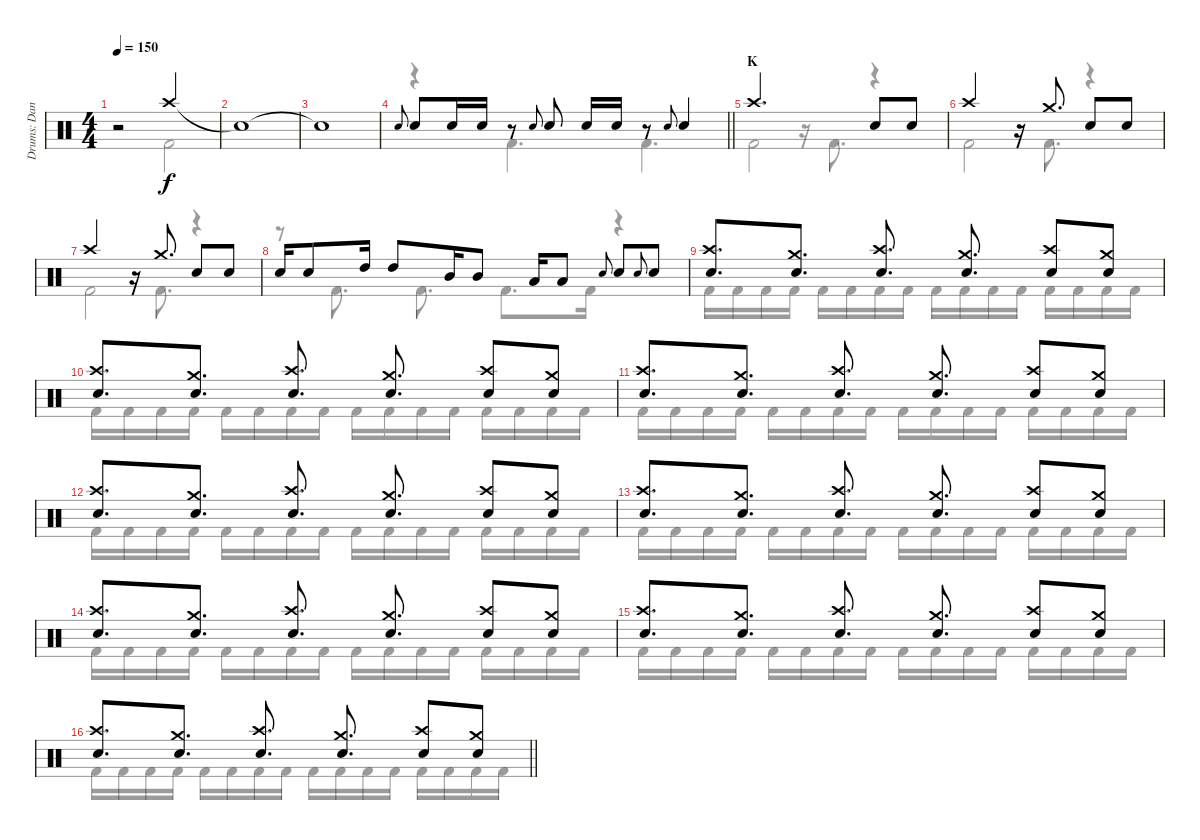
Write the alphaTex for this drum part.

\track ("Drums: Dana" "Drums: Dan") {instrument percussion}
\staff {score}
\articulation defaults
\voice
\ts (4 4)
\tempo 150
\clef neutral
\ks c
r.2{dy f} "Crash high (hit)".2 |
"Snare (hit)"{t}.1 |
"Snare (hit)"{t}.1 |
\barLineRight lightlight "Electric Snare (hit)".8{gr onbeat} "Snare (hit) 2".8 "Electric Snare (hit)".16 "Electric Snare (hit)".16
r.8 "Electric Snare (hit)".8{gr onbeat} "Snare (hit) 2".8 "Electric Snare (hit)".16 "Electric Snare (hit)".16 r.8 "Electric Snare (hit)".8{gr onbeat} "Snare (hit) 2".4 |
\section ("" "K")
"Crash high (hit)".2{d} "Snare (hit) 2".8 "Snare (hit) 2".8 |
"Crash high (hit)".2 r.16 "Crash medium (hit)".8{d} "Snare (hit) 2".8 "Snare (hit) 2".8 |
"Crash high (hit)".2 r.16 "Crash medium (hit)".8{d} "Snare (hit) 2".8 "Snare (hit) 2".8 |
"Snare (hit) 2".16 "Snare (hit) 2".8 "High Tom (hit)".16 "High Tom (hit)".8 "Mid Tom (hit)".16 "Mid Tom (hit)".8 "Low Tom (hit)".16 "Low Tom (hit)".8 "Electric Snare (hit)".8{gr onbeat} "Snare (hit) 2".8 "Electric Snare (hit)".8{gr onbeat} "Snare (hit) 2".8 |
("Crash high (hit)" "Snare (hit) 2").8{d} ("Crash medium (hit)" "Snare (hit) 2").8{d} ("Crash high (hit)" "Snare (hit) 2").8{d} ("Crash medium (hit)" "Snare (hit) 2").8{d} ("Crash high (hit)" "Snare (hit) 2").8 ("Crash medium (hit)" "Snare (hit) 2").8 |
("Crash high (hit)" "Snare (hit) 2").8{d} ("Crash medium (hit)" "Snare (hit) 2").8{d} ("Crash high (hit)" "Snare (hit) 2").8{d} ("Crash medium (hit)" "Snare (hit) 2").8{d} ("Crash high (hit)" "Snare (hit) 2").8 ("Crash medium (hit)" "Snare (hit) 2").8 |
("Crash high (hit)" "Snare (hit) 2").8{d} ("Crash medium (hit)" "Snare (hit) 2").8{d} ("Crash high (hit)" "Snare (hit) 2").8{d} ("Crash medium (hit)" "Snare (hit) 2").8{d} ("Crash high (hit)" "Snare (hit) 2").8 ("Crash medium (hit)" "Snare (hit) 2").8 |
("Crash high (hit)" "Snare (hit) 2").8{d} ("Crash medium (hit)" "Snare (hit) 2").8{d} ("Crash high (hit)" "Snare (hit) 2").8{d} ("Crash medium (hit)" "Snare (hit) 2").8{d} ("Crash high (hit)" "Snare (hit) 2").8 ("Crash medium (hit)" "Snare (hit) 2").8 |
("Crash high (hit)" "Snare (hit) 2").8{d} ("Crash medium (hit)" "Snare (hit) 2").8{d} ("Crash high (hit)" "Snare (hit) 2").8{d} ("Crash medium (hit)" "Snare (hit) 2").8{d} ("Crash high (hit)" "Snare (hit) 2").8 ("Crash medium (hit)" "Snare (hit) 2").8 |
("Crash high (hit)" "Snare (hit) 2").8{d} ("Crash medium (hit)" "Snare (hit) 2").8{d} ("Crash high (hit)" "Snare (hit) 2").8{d} ("Crash medium (hit)" "Snare (hit) 2").8{d} ("Crash high (hit)" "Snare (hit) 2").8 ("Crash medium (hit)" "Snare (hit) 2").8 |
("Crash high (hit)" "Snare (hit) 2").8{d} ("Crash medium (hit)" "Snare (hit) 2").8{d} ("Crash high (hit)" "Snare (hit) 2").8{d} ("Crash medium (hit)" "Snare (hit) 2").8{d} ("Crash high (hit)" "Snare (hit) 2").8 ("Crash medium (hit)" "Snare (hit) 2").8 |
\barLineRight lightlight
("Crash high (hit)" "Snare (hit) 2").8{d} ("Crash medium (hit)" "Snare (hit) 2").8{d} ("Crash high (hit)" "Snare (hit) 2").8{d} ("Crash medium (hit)" "Snare (hit) 2").8{d} ("Crash high (hit)" "Snare (hit) 2").8 ("Crash medium (hit)" "Snare (hit) 2").8
\voice
\clef neutral
\ottava regular
\simile none
\ks c
r.2{dy f} "Kick (hit) 2".2 |
|
|
\barLineRight lightlight
r.4 "Kick (hit) 2".4{d} "Kick (hit) 2".4{d} |
"Kick (hit) 2".2 r.16 "Kick (hit) 2".8{d} r.4 |
"Kick (hit) 2".2 r.16 "Kick (hit) 2".8{d} r.4 |
"Kick (hit) 2".2 r.16 "Kick (hit) 2".8{d} r.4 |
r.8 "Kick (hit) 2".8{d} "Kick (hit) 2".8{d} "Kick (hit) 2".8{d} "Kick (hit) 2".16 r.4 |
"Kick (hit) 2".16 "Kick (hit) 2".16 "Kick (hit) 2".16 "Kick (hit) 2".16 "Kick (hit) 2".16 "Kick (hit) 2".16 "Kick (hit) 2".16 "Kick (hit) 2".16 "Kick (hit) 2".16 "Kick (hit) 2".16 "Kick (hit) 2".16 "Kick (hit) 2".16 "Kick (hit) 2".16 "Kick (hit) 2".16 "Kick (hit) 2".16 "Kick (hit) 2".16 |
"Kick (hit) 2".16 "Kick (hit) 2".16 "Kick (hit) 2".16 "Kick (hit) 2".16 "Kick (hit) 2".16 "Kick (hit) 2".16 "Kick (hit) 2".16 "Kick (hit) 2".16 "Kick (hit) 2".16 "Kick (hit) 2".16 "Kick (hit) 2".16 "Kick (hit) 2".16 "Kick (hit) 2".16 "Kick (hit) 2".16 "Kick (hit) 2".16 "Kick (hit) 2".16 |
"Kick (hit) 2".16 "Kick (hit) 2".16 "Kick (hit) 2".16 "Kick (hit) 2".16 "Kick (hit) 2".16 "Kick (hit) 2".16 "Kick (hit) 2".16 "Kick (hit) 2".16 "Kick (hit) 2".16 "Kick (hit) 2".16 "Kick (hit) 2".16 "Kick (hit) 2".16 "Kick (hit) 2".16 "Kick (hit) 2".16 "Kick (hit) 2".16 "Kick (hit) 2".16 |
"Kick (hit) 2".16 "Kick (hit) 2".16 "Kick (hit) 2".16 "Kick (hit) 2".16 "Kick (hit) 2".16 "Kick (hit) 2".16 "Kick (hit) 2".16 "Kick (hit) 2".16 "Kick (hit) 2".16 "Kick (hit) 2".16 "Kick (hit) 2".16 "Kick (hit) 2".16 "Kick (hit) 2".16 "Kick (hit) 2".16 "Kick (hit) 2".16 "Kick (hit) 2".16 |
"Kick (hit) 2".16 "Kick (hit) 2".16 "Kick (hit) 2".16 "Kick (hit) 2".16 "Kick (hit) 2".16 "Kick (hit) 2".16 "Kick (hit) 2".16 "Kick (hit) 2".16 "Kick (hit) 2".16 "Kick (hit) 2".16 "Kick (hit) 2".16 "Kick (hit) 2".16 "Kick (hit) 2".16 "Kick (hit) 2".16 "Kick (hit) 2".16 "Kick (hit) 2".16 |
"Kick (hit) 2".16 "Kick (hit) 2".16 "Kick (hit) 2".16 "Kick (hit) 2".16 "Kick (hit) 2".16 "Kick (hit) 2".16 "Kick (hit) 2".16 "Kick (hit) 2".16 "Kick (hit) 2".16 "Kick (hit) 2".16 "Kick (hit) 2".16 "Kick (hit) 2".16 "Kick (hit) 2".16 "Kick (hit) 2".16 "Kick (hit) 2".16 "Kick (hit) 2".16 |
"Kick (hit) 2".16 "Kick (hit) 2".16 "Kick (hit) 2".16 "Kick (hit) 2".16 "Kick (hit) 2".16 "Kick (hit) 2".16 "Kick (hit) 2".16 "Kick (hit) 2".16 "Kick (hit) 2".16 "Kick (hit) 2".16 "Kick (hit) 2".16 "Kick (hit) 2".16 "Kick (hit) 2".16 "Kick (hit) 2".16 "Kick (hit) 2".16 "Kick (hit) 2".16 |
\barLineRight lightlight "Kick (hit) 2".16 "Kick (hit) 2".16 "Kick (hit) 2".16 "Kick (hit) 2".16 "Kick (hit) 2".16 "Kick (hit) 2".16 "Kick (hit) 2".16 "Kick (hit) 2".16 "Kick (hit) 2".16 "Kick (hit) 2".16 "Kick (hit) 2".16 "Kick (hit) 2".16 "Kick (hit) 2".16 "Kick (hit) 2".16 "Kick (hit) 2".16 "Kick (hit) 2".16
